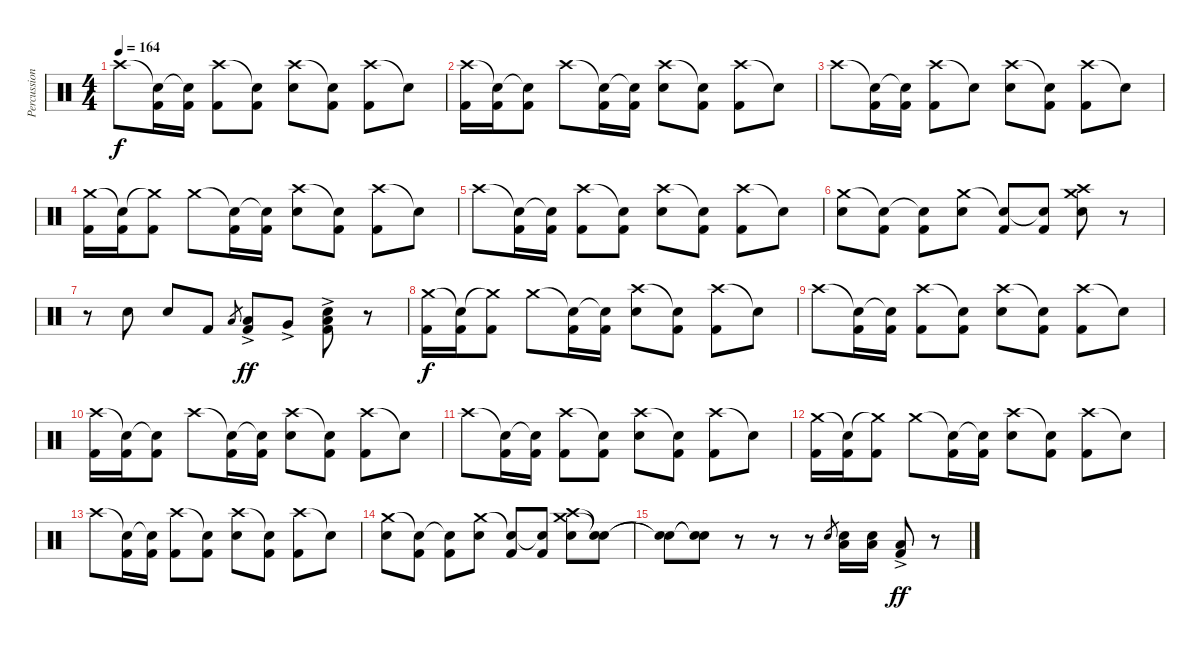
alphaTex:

\track ("Percussion" "Percussion") {instrument percussion bank 177}
\staff {score}
\articulation defaults
\ts (4 4)
\tempo 164
\clef neutral
\ks c "Crash high (hit)".8{dy f}
("Snare (hit)"{t} "Kick (hit) 2").16 ("Snare (hit)"{t} "Kick (hit) 2").16 ("Crash high (hit)" "Kick (hit) 2").8 ("Snare (hit)"{t} "Kick (hit) 2").8 ("Crash high (hit)" "Snare (hit) 2").8 ("Snare (hit)"{t} "Kick (hit) 2").8 ("Crash high (hit)" "Kick (hit) 2").8 "Snare (hit)"{t}.8 |
("Crash high (hit)" "Kick (hit) 2").16 ("Snare (hit)"{t} "Kick (hit) 2").16 ("Snare (hit)"{t} "Kick (hit) 2").8 "Crash high (hit)".8 ("Snare (hit)"{t} "Kick (hit) 2").16 ("Snare (hit)"{t} "Kick (hit) 2").16 ("Crash high (hit)" "Snare (hit) 2").8 ("Snare (hit)"{t} "Kick (hit) 2").8 ("Crash high (hit)" "Kick (hit) 2").8 "Snare (hit)"{t}.8 |
"Crash high (hit)".8 ("Snare (hit)"{t} "Kick (hit) 2").16 ("Snare (hit)"{t} "Kick (hit) 2").16 ("Crash high (hit)" "Kick (hit) 2").8 "Snare (hit)"{t}.8 ("Crash high (hit)" "Snare (hit) 2").8 ("Snare (hit)"{t} "Kick (hit) 2").8 ("Crash high (hit)" "Kick (hit) 2").8 "Snare (hit)"{t}.8 |
("Crash medium (hit)" "Kick (hit) 2").16 ("Snare (hit)"{t} "Kick (hit) 2").16 ("Crash medium (hit)"{t} "Kick (hit) 2").8 "Crash medium (hit)".8 ("Snare (hit)"{t} "Kick (hit) 2").16 ("Snare (hit)"{t} "Kick (hit) 2").16 ("Crash high (hit)" "Snare (hit) 2").8 ("Snare (hit)"{t} "Kick (hit) 2").8 ("Crash high (hit)" "Kick (hit) 2").8 "Snare (hit)"{t}.8 |
"Crash high (hit)".8 ("Snare (hit)"{t} "Kick (hit) 2").16 ("Snare (hit)"{t} "Kick (hit) 2").16 ("Crash high (hit)" "Kick (hit) 2").8 ("Snare (hit)"{t} "Kick (hit) 2").8 ("Crash high (hit)" "Snare (hit) 2").8 ("Snare (hit)"{t} "Kick (hit) 2").8 ("Crash high (hit)" "Kick (hit) 2").8 "Snare (hit)"{t}.8 |
("Crash medium (hit)" "Snare (hit) 2").8 ("Snare (hit)"{t} "Kick (hit) 2").8 ("Snare (hit)"{t} "Kick (hit) 2").8 ("Crash medium (hit)" "Snare (hit) 2").8 ("Snare (hit)"{t} "Kick (hit) 2").8 ("Snare (hit)"{t} "Kick (hit) 2").8 ("Crash medium (hit)" "Crash high (hit)" "Snare (hit) 2").8 r.8 |
r.8 "Snare (hit) 2".8 "Snare (hit) 2".8 "Kick (hit) 2".8 "Low Tom (hit)".8{gr} ("Low Tom (hit)"{ac} "Kick (hit) 2"{ac}).8{dy ff} "Very Low Tom (hit)"{ac}.8 ("Low Floor Tom (hit)"{ac} "Snare (hit) 2"{ac} "Kick (hit) 2"{ac}).8 r.8 |
("Crash medium (hit)" "Kick (hit) 2").16{dy f} ("Snare (hit)"{t} "Kick (hit) 2").16 ("Crash medium (hit)"{t} "Kick (hit) 2").8 "Crash medium (hit)".8 ("Snare (hit)"{t} "Kick (hit) 2").16 ("Snare (hit)"{t} "Kick (hit) 2").16 ("Crash high (hit)" "Snare (hit) 2").8 ("Snare (hit)"{t} "Kick (hit) 2").8 ("Crash high (hit)" "Kick (hit) 2").8 "Snare (hit)"{t}.8 |
"Crash high (hit)".8 ("Snare (hit)"{t} "Kick (hit) 2").16 ("Snare (hit)"{t} "Kick (hit) 2").16 ("Crash high (hit)" "Kick (hit) 2").8 ("Snare (hit)"{t} "Kick (hit) 2").8 ("Crash high (hit)" "Snare (hit) 2").8 ("Snare (hit)"{t} "Kick (hit) 2").8 ("Crash high (hit)" "Kick (hit) 2").8 "Snare (hit)"{t}.8 |
("Crash high (hit)" "Kick (hit) 2").16 ("Snare (hit)"{t} "Kick (hit) 2").16 ("Snare (hit)"{t} "Kick (hit) 2").8 "Crash high (hit)".8 ("Snare (hit)"{t} "Kick (hit) 2").16 ("Snare (hit)"{t} "Kick (hit) 2").16 ("Crash high (hit)" "Snare (hit) 2").8 ("Snare (hit)"{t} "Kick (hit) 2").8 ("Crash high (hit)" "Kick (hit) 2").8 "Snare (hit)"{t}.8 |
"Crash high (hit)".8 ("Snare (hit)"{t} "Kick (hit) 2").16 ("Snare (hit)"{t} "Kick (hit) 2").16 ("Crash high (hit)" "Kick (hit) 2").8 ("Snare (hit)"{t} "Kick (hit) 2").8 ("Crash high (hit)" "Snare (hit) 2").8 ("Snare (hit)"{t} "Kick (hit) 2").8 ("Crash high (hit)" "Kick (hit) 2").8 "Snare (hit)"{t}.8 |
("Crash medium (hit)" "Kick (hit) 2").16 ("Snare (hit)"{t} "Kick (hit) 2").16 ("Crash medium (hit)"{t} "Kick (hit) 2").8 "Crash medium (hit)".8 ("Snare (hit)"{t} "Kick (hit) 2").16 ("Snare (hit)"{t} "Kick (hit) 2").16 ("Crash high (hit)" "Snare (hit) 2").8 ("Snare (hit)"{t} "Kick (hit) 2").8 ("Crash high (hit)" "Kick (hit) 2").8 "Snare (hit)"{t}.8 |
"Crash high (hit)".8 ("Snare (hit)"{t} "Kick (hit) 2").16 ("Snare (hit)"{t} "Kick (hit) 2").16 ("Crash high (hit)" "Kick (hit) 2").8 ("Snare (hit)"{t} "Kick (hit) 2").8 ("Crash high (hit)" "Snare (hit) 2").8 ("Snare (hit)"{t} "Kick (hit) 2").8 ("Crash high (hit)" "Kick (hit) 2").8 "Snare (hit)"{t}.8 |
("Crash medium (hit)" "Snare (hit) 2").8 ("Snare (hit)"{t} "Kick (hit) 2").8 ("Snare (hit)"{t} "Kick (hit) 2").8 ("Crash medium (hit)" "Snare (hit) 2").8 ("Snare (hit)"{t} "Kick (hit) 2").8 ("Snare (hit)"{t} "Kick (hit) 2").8 ("Crash medium (hit)" "Crash high (hit)" "Snare (hit) 2").8 ("Snare (hit)"{t} "Snare (hit)"{t}).8 |
("Snare (hit)"{t} "Snare (hit)"{t}).8 ("Snare (hit)"{t} "Snare (hit)"{t}).8 r.8 r.8 r.8 "Snare (hit) 2".8{gr} ("Low Tom (hit)" "Snare (hit) 2").16 ("Low Tom (hit)" "Snare (hit) 2").16 ("Low Floor Tom (hit)" "Kick (hit) 2"{ac}).8{dy ff} r.8
